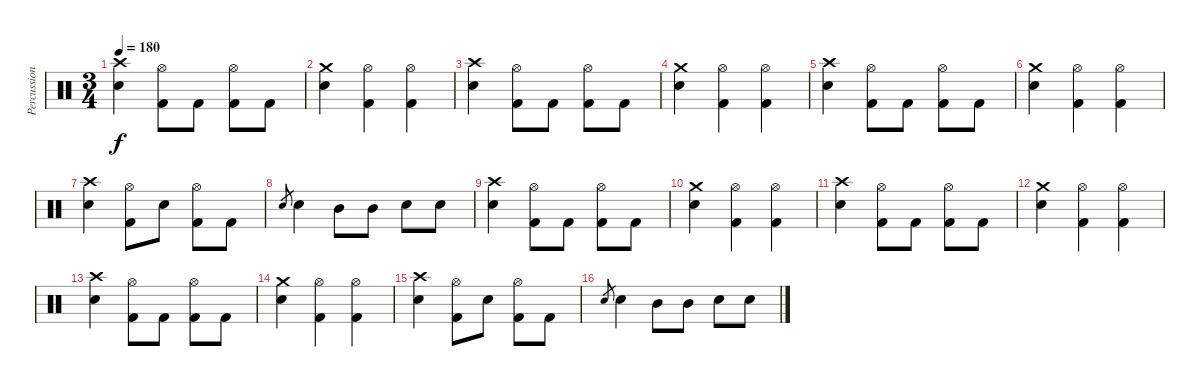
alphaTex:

\track ("Percussions" "Percussion") {instrument percussion}
\staff {score}
\articulation defaults
\ts (3 4)
\tempo 180
\clef neutral
\ks c
("Crash high (hit)" "Snare (hit) 2").4{dy f} ("Hi-Hat (open)" "Kick (hit) 2").8 "Kick (hit) 2".8 ("Hi-Hat (open)" "Kick (hit) 2").8 "Kick (hit) 2".8 |
("Crash medium (hit)" "Snare (hit) 2").4 ("Hi-Hat (open)" "Kick (hit) 2").4 ("Hi-Hat (open)" "Kick (hit) 2").4 |
("Crash high (hit)" "Snare (hit) 2").4 ("Hi-Hat (open)" "Kick (hit) 2").8 "Kick (hit) 2".8 ("Hi-Hat (open)" "Kick (hit) 2").8 "Kick (hit) 2".8 |
("Crash medium (hit)" "Snare (hit) 2").4 ("Hi-Hat (open)" "Kick (hit) 2").4 ("Hi-Hat (open)" "Kick (hit) 2").4 |
("Crash high (hit)" "Snare (hit) 2").4 ("Hi-Hat (open)" "Kick (hit) 2").8 "Kick (hit) 2".8 ("Hi-Hat (open)" "Kick (hit) 2").8 "Kick (hit) 2".8 |
("Crash medium (hit)" "Snare (hit) 2").4 ("Hi-Hat (open)" "Kick (hit) 2").4 ("Hi-Hat (open)" "Kick (hit) 2").4 |
("Crash high (hit)" "Snare (hit) 2").4 ("Hi-Hat (open)" "Kick (hit) 2").8 "Snare (hit) 2".8 ("Hi-Hat (open)" "Kick (hit) 2").8 "Kick (hit) 2".8 |
"Snare (hit) 2".8{gr} "Snare (hit) 2".4 "Mid Tom (hit)".8 "Mid Tom (hit)".8 "Snare (hit) 2".8 "Snare (hit) 2".8 |
("Crash high (hit)" "Snare (hit) 2").4 ("Hi-Hat (open)" "Kick (hit) 2").8 "Kick (hit) 2".8 ("Hi-Hat (open)" "Kick (hit) 2").8 "Kick (hit) 2".8 |
("Crash medium (hit)" "Snare (hit) 2").4 ("Hi-Hat (open)" "Kick (hit) 2").4 ("Hi-Hat (open)" "Kick (hit) 2").4 |
("Crash high (hit)" "Snare (hit) 2").4 ("Hi-Hat (open)" "Kick (hit) 2").8 "Kick (hit) 2".8 ("Hi-Hat (open)" "Kick (hit) 2").8 "Kick (hit) 2".8 |
("Crash medium (hit)" "Snare (hit) 2").4 ("Hi-Hat (open)" "Kick (hit) 2").4 ("Hi-Hat (open)" "Kick (hit) 2").4 |
("Crash high (hit)" "Snare (hit) 2").4 ("Hi-Hat (open)" "Kick (hit) 2").8 "Kick (hit) 2".8 ("Hi-Hat (open)" "Kick (hit) 2").8 "Kick (hit) 2".8 |
("Crash medium (hit)" "Snare (hit) 2").4 ("Hi-Hat (open)" "Kick (hit) 2").4 ("Hi-Hat (open)" "Kick (hit) 2").4 |
("Crash high (hit)" "Snare (hit) 2").4 ("Hi-Hat (open)" "Kick (hit) 2").8 "Snare (hit) 2".8 ("Hi-Hat (open)" "Kick (hit) 2").8 "Kick (hit) 2".8 |
"Snare (hit) 2".8{gr} "Snare (hit) 2".4 "Mid Tom (hit)".8 "Mid Tom (hit)".8 "Snare (hit) 2".8 "Snare (hit) 2".8
